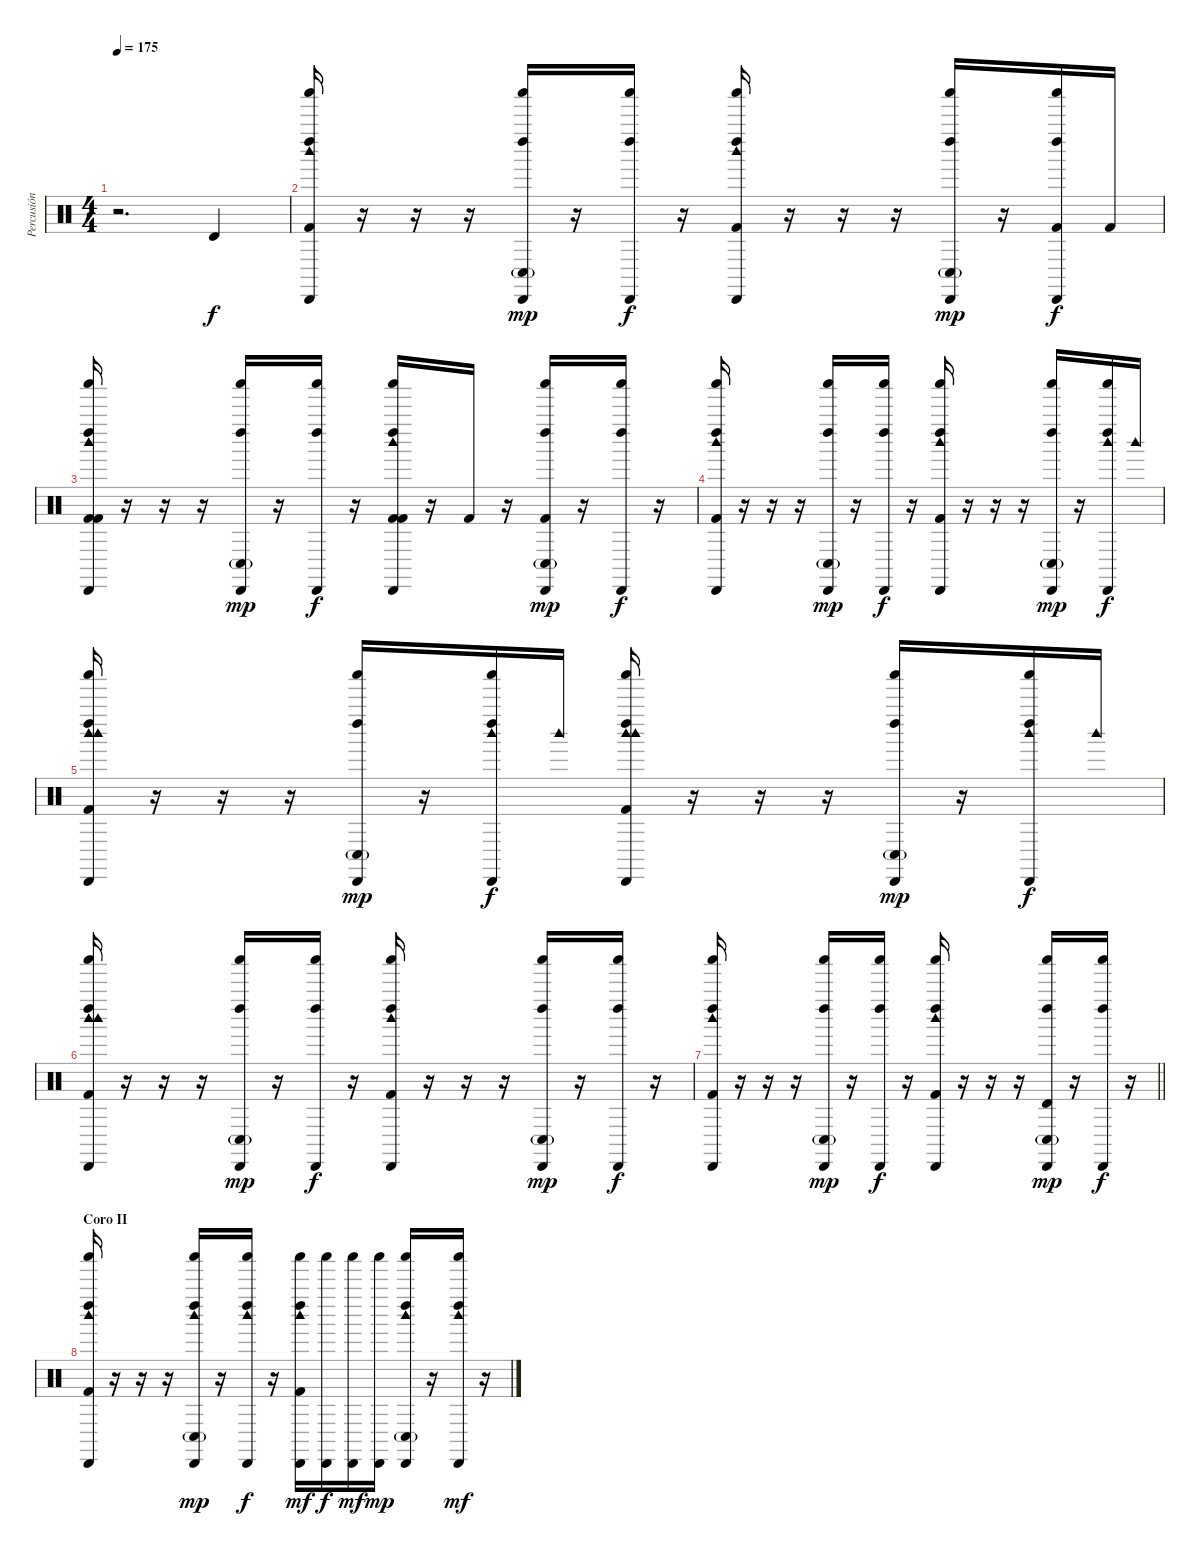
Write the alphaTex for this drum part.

\track ("Percusión" "Percusión") {instrument percussion}
\staff {score}
\articulation defaults
\ts (4 4)
\tempo 175
\clef neutral
\ks c
r.2{d dy f} "Timbale high (hit)".4 |
("Cabasa (hit)" "Shaker (hit)" "Kick (hit) 2" "Left Maraca (hit)" "Woodblock high (hit)").16 r.16 r.16 r.16 ("Cabasa (hit)" "Shaker (hit)" "Conga low (hit)"{g} "Left Maraca (hit)").16{dy mp} r.16 ("Cabasa (hit)" "Shaker (hit)" "Left Maraca (hit)").16{dy f} r.16 ("Cabasa (hit)" "Shaker (hit)" "Kick (hit) 2" "Left Maraca (hit)" "Woodblock high (hit)").16 r.16 r.16 r.16 ("Cabasa (hit)" "Shaker (hit)" "Conga low (hit)"{g} "Left Maraca (hit)").16{dy mp} r.16 ("Kick (hit) 2" "Cabasa (hit)" "Shaker (hit)" "Left Maraca (hit)").16{dy f} "Kick (hit) 2".16 |
("Kick (hit) 2" "Cabasa (hit)" "Shaker (hit)" "Kick (hit) 2" "Left Maraca (hit)" "Woodblock high (hit)").16 r.16 r.16 r.16 ("Cabasa (hit)" "Shaker (hit)" "Conga low (hit)"{g} "Left Maraca (hit)").16{dy mp} r.16 ("Cabasa (hit)" "Shaker (hit)" "Left Maraca (hit)").16{dy f} r.16 ("Kick (hit) 2" "Cabasa (hit)" "Shaker (hit)" "Kick (hit) 2" "Left Maraca (hit)" "Woodblock high (hit)").16 r.16 "Kick (hit) 2".16 r.16 ("Kick (hit) 2" "Cabasa (hit)" "Shaker (hit)" "Conga low (hit)"{g} "Left Maraca (hit)").16{dy mp} r.16 ("Cabasa (hit)" "Shaker (hit)" "Left Maraca (hit)").16{dy f} r.16 |
("Cabasa (hit)" "Shaker (hit)" "Kick (hit) 2" "Left Maraca (hit)" "Woodblock high (hit)").16 r.16 r.16 r.16 ("Cabasa (hit)" "Shaker (hit)" "Conga low (hit)"{g} "Left Maraca (hit)").16{dy mp} r.16 ("Cabasa (hit)" "Shaker (hit)" "Left Maraca (hit)").16{dy f} r.16 ("Cabasa (hit)" "Shaker (hit)" "Kick (hit) 2" "Left Maraca (hit)" "Woodblock high (hit)").16 r.16 r.16 r.16 ("Cabasa (hit)" "Shaker (hit)" "Conga low (hit)"{g} "Left Maraca (hit)").16{dy mp} r.16 ("Woodblock high (hit)" "Cabasa (hit)" "Shaker (hit)" "Left Maraca (hit)").16{dy f} "Woodblock high (hit)".16 |
("Woodblock high (hit)" "Cabasa (hit)" "Shaker (hit)" "Kick (hit) 2" "Left Maraca (hit)" "Woodblock high (hit)").16 r.16 r.16 r.16 ("Cabasa (hit)" "Shaker (hit)" "Conga low (hit)"{g} "Left Maraca (hit)").16{dy mp} r.16 ("Woodblock high (hit)" "Cabasa (hit)" "Shaker (hit)" "Left Maraca (hit)").16{dy f} "Woodblock high (hit)".16 ("Woodblock high (hit)" "Cabasa (hit)" "Shaker (hit)" "Kick (hit) 2" "Left Maraca (hit)" "Woodblock high (hit)").16 r.16 r.16 r.16 ("Cabasa (hit)" "Shaker (hit)" "Conga low (hit)"{g} "Left Maraca (hit)").16{dy mp} r.16 ("Woodblock high (hit)" "Cabasa (hit)" "Shaker (hit)" "Left Maraca (hit)").16{dy f} "Woodblock high (hit)".16 |
("Woodblock high (hit)" "Cabasa (hit)" "Shaker (hit)" "Kick (hit) 2" "Left Maraca (hit)" "Woodblock high (hit)").16 r.16 r.16 r.16 ("Cabasa (hit)" "Shaker (hit)" "Conga low (hit)"{g} "Left Maraca (hit)").16{dy mp} r.16 ("Cabasa (hit)" "Shaker (hit)" "Left Maraca (hit)").16{dy f} r.16 ("Cabasa (hit)" "Shaker (hit)" "Kick (hit) 2" "Left Maraca (hit)" "Woodblock high (hit)").16 r.16 r.16 r.16 ("Cabasa (hit)" "Shaker (hit)" "Conga low (hit)"{g} "Left Maraca (hit)").16{dy mp} r.16 ("Cabasa (hit)" "Shaker (hit)" "Left Maraca (hit)").16{dy f} r.16 |
\barLineRight lightlight
("Cabasa (hit)" "Shaker (hit)" "Kick (hit) 2" "Left Maraca (hit)" "Woodblock high (hit)").16 r.16 r.16 r.16 ("Cabasa (hit)" "Shaker (hit)" "Conga low (hit)"{g} "Left Maraca (hit)").16{dy mp} r.16 ("Cabasa (hit)" "Shaker (hit)" "Left Maraca (hit)").16{dy f} r.16 ("Cabasa (hit)" "Shaker (hit)" "Kick (hit) 2" "Left Maraca (hit)" "Woodblock high (hit)").16 r.16 r.16 r.16 ("Timbale high (hit)" "Cabasa (hit)" "Shaker (hit)" "Conga low (hit)"{g} "Left Maraca (hit)").16{dy mp} r.16 ("Cabasa (hit)" "Shaker (hit)" "Left Maraca (hit)").16{dy f} r.16 |
\section ("" "Coro II")
("Cabasa (hit)" "Shaker (hit)" "Kick (hit) 2" "Left Maraca (hit)" "Woodblock high (hit)").16 r.16 r.16 r.16 ("Cabasa (hit)" "Shaker (hit)" "Conga low (hit)"{g} "Left Maraca (hit)" "Woodblock high (hit)").16{dy mp} r.16 ("Cabasa (hit)" "Shaker (hit)" "Left Maraca (hit)" "Woodblock high (hit)").16{dy f} r.16 ("Cabasa (hit)" "Shaker (hit)" "Left Maraca (hit)" "Woodblock high (hit)" "Kick (hit) 2").16{dy mf} ("Cabasa (hit)" "Shaker (hit)").16{dy f} ("Cabasa (hit)" "Shaker (hit)").16{dy mf} ("Cabasa (hit)" "Shaker (hit)").16{dy mp} ("Cabasa (hit)" "Shaker (hit)" "Left Maraca (hit)" "Woodblock high (hit)" "Conga low (hit)"{g}).16 r.16 ("Cabasa (hit)" "Shaker (hit)" "Left Maraca (hit)" "Woodblock high (hit)").16{dy mf} r.16
